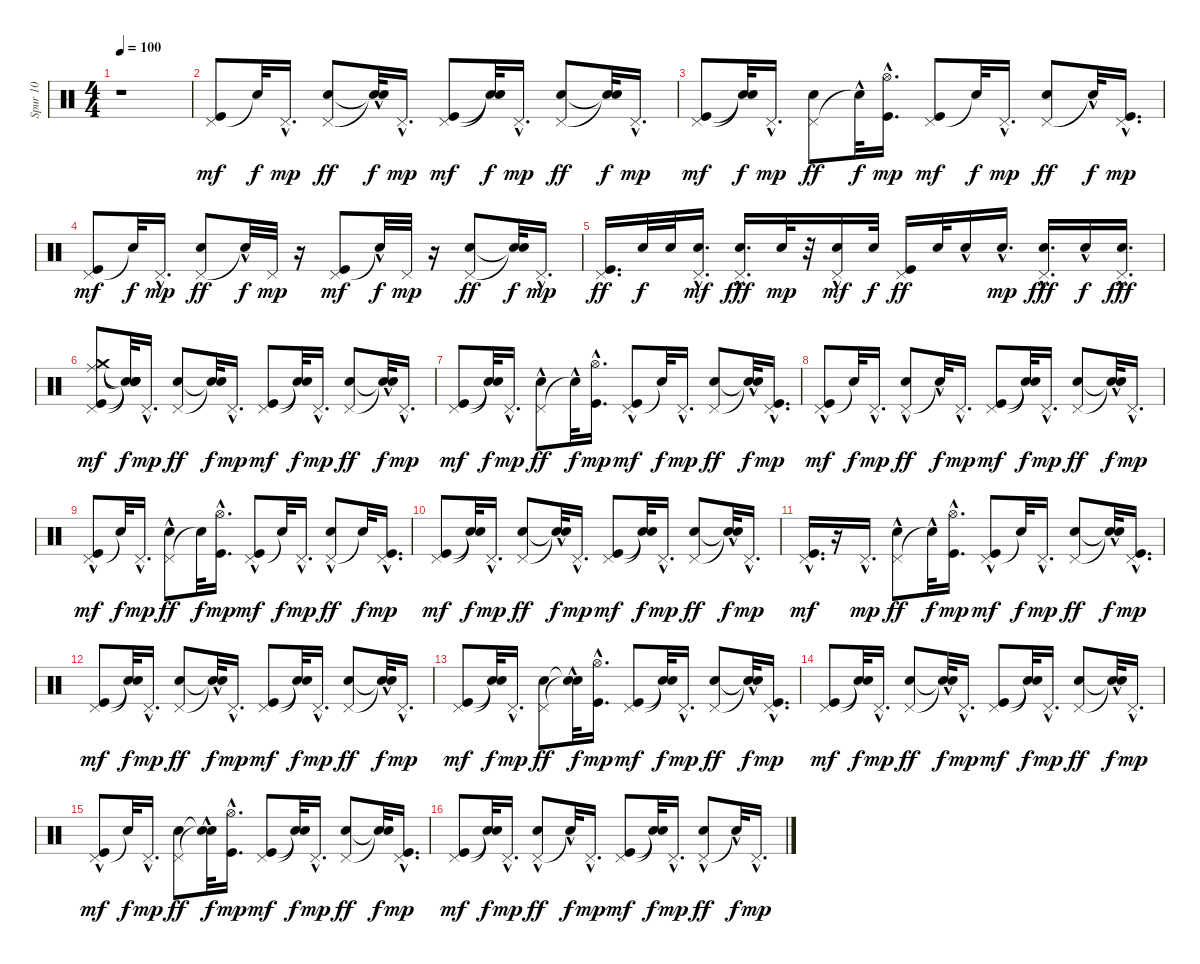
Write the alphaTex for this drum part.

\track ("Spur 10" "Spur 10") {instrument percussion}
\staff {score}
\articulation defaults
\ts (4 4)
\tempo 100
\clef neutral
\ks c
r.1{dy mf} |
("Pedal Hi-Hat (hit)" "Kick (hit)").8 "Snare (hit)"{t}.32{dy f} "Pedal Hi-Hat (hit)"{hac}.16{d dy mp} ("Pedal Hi-Hat (hit)" "Hand Clap (hit)").8{dy ff} ("Snare (hit)"{t} "Snare (hit)"{hac t}).32{dy f} "Pedal Hi-Hat (hit)"{hac}.16{d dy mp} ("Pedal Hi-Hat (hit)" "Kick (hit)").8{dy mf} ("Snare (hit)"{t} "Snare (hit)"{t}).32{dy f} "Pedal Hi-Hat (hit)"{hac}.16{d dy mp} ("Pedal Hi-Hat (hit)" "Hand Clap (hit)").8{dy ff} ("Snare (hit)"{t} "Snare (hit)"{t}).32{dy f} "Pedal Hi-Hat (hit)"{hac}.16{d dy mp} |
("Pedal Hi-Hat (hit)" "Kick (hit)").8{dy mf} ("Snare (hit)"{t} "Snare (hit)"{t}).32{dy f} "Pedal Hi-Hat (hit)"{hac}.16{d dy mp} ("Pedal Hi-Hat (hit)" "Hand Clap (hit)").8{dy ff} "Snare (hit)"{hac t}.32{dy f} ("Hi-Hat (open)" "Kick (hit)"{hac}).16{d dy mp} ("Pedal Hi-Hat (hit)" "Kick (hit)").8{dy mf} "Snare (hit)"{t}.32{dy f} "Pedal Hi-Hat (hit)"{hac}.16{d dy mp} ("Pedal Hi-Hat (hit)" "Hand Clap (hit)").8{dy ff} "Snare (hit)"{hac t}.32{dy f} ("Pedal Hi-Hat (hit)"{hac} "Kick (hit)").16{d dy mp} |
("Pedal Hi-Hat (hit)" "Kick (hit)").8{dy mf} "Snare (hit)"{t}.32{dy f} "Pedal Hi-Hat (hit)"{hac}.16{d dy mp} ("Pedal Hi-Hat (hit)" "Hand Clap (hit)").8{dy ff} "Snare (hit)"{hac t}.32{dy f} "Pedal Hi-Hat (hit)".32{dy mp} r.16 ("Pedal Hi-Hat (hit)" "Kick (hit)").8{dy mf} "Snare (hit)"{hac t}.32{dy f} "Pedal Hi-Hat (hit)".32{dy mp} r.16 ("Pedal Hi-Hat (hit)" "Hand Clap (hit)").8{dy ff} ("Snare (hit)"{t} "Snare (hit)"{t}).32{dy f} "Pedal Hi-Hat (hit)"{hac}.16{d dy mp} |
("Pedal Hi-Hat (hit)" "Kick (hit)").16{d dy ff} "Hand Clap (hit)".32{dy f} "Snare (hit) 2".32 ("Hand Clap (hit)"{hac} "Pedal Hi-Hat (hit)"{hac}).16{d dy mf} ("Pedal Hi-Hat (hit)" "Hand Clap (hit)"{hac}).16{d dy fff} "Hand Clap (hit)".32{dy mp} r.32 ("Hand Clap (hit)" "Pedal Hi-Hat (hit)"{hac}).16{dy mf} "Snare (hit) 2".32{dy f} ("Pedal Hi-Hat (hit)" "Kick (hit)").16{dy ff} "Snare (hit) 2".32 "Hand Clap (hit)"{hac}.16 "Hand Clap (hit)"{hac}.16{d dy mp} ("Pedal Hi-Hat (hit)" "Hand Clap (hit)"{hac}).16{d dy fff} "Hand Clap (hit)"{hac}.16{dy f} ("Pedal Hi-Hat (hit)"{hac} "Hand Clap (hit)").16{d dy fff} |
("Crash medium (hit)" "Ride (middle)" "Pedal Hi-Hat (hit)" "Kick (hit)").8{dy mf} ("Snare (hit)"{t} "Snare (hit)"{t} "Snare (hit)"{t} "Snare (hit)"{t}).32{dy f} "Pedal Hi-Hat (hit)"{hac}.16{d dy mp} ("Pedal Hi-Hat (hit)" "Hand Clap (hit)").8{dy ff} ("Snare (hit)"{t} "Snare (hit)"{t}).32{dy f} "Pedal Hi-Hat (hit)"{hac}.16{d dy mp} ("Pedal Hi-Hat (hit)" "Kick (hit)").8{dy mf} ("Snare (hit)"{t} "Snare (hit)"{t}).32{dy f} "Pedal Hi-Hat (hit)"{hac}.16{d dy mp} ("Pedal Hi-Hat (hit)" "Hand Clap (hit)").8{dy ff} ("Snare (hit)"{t} "Snare (hit)"{hac t}).32{dy f} "Pedal Hi-Hat (hit)"{hac}.16{d dy mp} |
("Pedal Hi-Hat (hit)" "Kick (hit)").8{dy mf} ("Snare (hit)"{t} "Snare (hit)"{t}).32{dy f} "Pedal Hi-Hat (hit)"{hac}.16{d dy mp} ("Pedal Hi-Hat (hit)"{hac} "Hand Clap (hit)").8{dy ff} "Snare (hit)"{hac t}.32{dy f} ("Hi-Hat (open)" "Kick (hit)"{hac}).16{d dy mp} ("Pedal Hi-Hat (hit)"{hac} "Kick (hit)").8{dy mf} "Snare (hit)"{t}.32{dy f} "Pedal Hi-Hat (hit)"{hac}.16{d dy mp} ("Pedal Hi-Hat (hit)" "Hand Clap (hit)").8{dy ff} ("Snare (hit)"{t} "Snare (hit)"{hac t}).32{dy f} ("Pedal Hi-Hat (hit)"{hac} "Kick (hit)"{hac}).16{d dy mp} |
("Pedal Hi-Hat (hit)" "Kick (hit)"{hac}).8{dy mf} "Snare (hit)"{t}.32{dy f} "Pedal Hi-Hat (hit)"{hac}.16{d dy mp} ("Pedal Hi-Hat (hit)"{hac} "Hand Clap (hit)").8{dy ff} "Snare (hit)"{hac t}.32{dy f} "Pedal Hi-Hat (hit)"{hac}.16{d dy mp} ("Pedal Hi-Hat (hit)" "Kick (hit)").8{dy mf} ("Snare (hit)"{t} "Snare (hit)"{t}).32{dy f} "Pedal Hi-Hat (hit)"{hac}.16{d dy mp} ("Pedal Hi-Hat (hit)" "Hand Clap (hit)").8{dy ff} ("Snare (hit)"{t} "Snare (hit)"{hac t}).32{dy f} "Pedal Hi-Hat (hit)"{hac}.16{d dy mp} |
("Pedal Hi-Hat (hit)" "Kick (hit)"{hac}).8{dy mf} "Snare (hit)"{t}.32{dy f} "Pedal Hi-Hat (hit)"{hac}.16{d dy mp} ("Pedal Hi-Hat (hit)"{hac} "Hand Clap (hit)").8{dy ff} "Snare (hit)"{t}.32{dy f} ("Hi-Hat (open)"{hac} "Kick (hit)"{hac}).16{d dy mp} ("Pedal Hi-Hat (hit)" "Kick (hit)"{hac}).8{dy mf} "Snare (hit)"{t}.32{dy f} "Pedal Hi-Hat (hit)"{hac}.16{d dy mp} ("Pedal Hi-Hat (hit)" "Hand Clap (hit)"{hac}).8{dy ff} "Snare (hit)"{t}.32{dy f} ("Pedal Hi-Hat (hit)"{hac} "Kick (hit)"{hac}).16{d dy mp} |
("Pedal Hi-Hat (hit)" "Kick (hit)").8{dy mf} ("Snare (hit)"{t} "Snare (hit)"{t}).32{dy f} "Pedal Hi-Hat (hit)"{hac}.16{d dy mp} ("Pedal Hi-Hat (hit)" "Hand Clap (hit)").8{dy ff} ("Snare (hit)"{t} "Snare (hit)"{hac t}).32{dy f} "Pedal Hi-Hat (hit)"{hac}.16{d dy mp} ("Pedal Hi-Hat (hit)" "Kick (hit)").8{dy mf} ("Snare (hit)"{t} "Snare (hit)"{t}).32{dy f} "Pedal Hi-Hat (hit)"{hac}.16{d dy mp} ("Pedal Hi-Hat (hit)" "Hand Clap (hit)").8{dy ff} ("Snare (hit)"{t} "Snare (hit)"{hac t}).32{dy f} "Pedal Hi-Hat (hit)"{hac}.16{d dy mp} |
("Pedal Hi-Hat (hit)"{hac} "Kick (hit)"{hac}).16{d dy mf} r.16 "Pedal Hi-Hat (hit)"{hac}.16{d dy mp} ("Pedal Hi-Hat (hit)"{hac} "Hand Clap (hit)").8{dy ff} "Snare (hit)"{hac t}.32{dy f} ("Hi-Hat (open)" "Kick (hit)"{hac}).16{d dy mp} ("Pedal Hi-Hat (hit)"{hac} "Kick (hit)").8{dy mf} "Snare (hit)"{t}.32{dy f} "Pedal Hi-Hat (hit)"{hac}.16{d dy mp} ("Pedal Hi-Hat (hit)" "Hand Clap (hit)").8{dy ff} ("Snare (hit)"{t} "Snare (hit)"{hac t}).32{dy f} ("Pedal Hi-Hat (hit)"{hac} "Kick (hit)"{hac}).16{d dy mp} |
("Pedal Hi-Hat (hit)" "Kick (hit)").8{dy mf} ("Snare (hit)"{t} "Snare (hit)"{t}).32{dy f} "Pedal Hi-Hat (hit)"{hac}.16{d dy mp} ("Pedal Hi-Hat (hit)" "Hand Clap (hit)").8{dy ff} ("Snare (hit)"{t} "Snare (hit)"{hac t}).32{dy f} "Pedal Hi-Hat (hit)"{hac}.16{d dy mp} ("Pedal Hi-Hat (hit)" "Kick (hit)").8{dy mf} ("Snare (hit)"{t} "Snare (hit)"{t}).32{dy f} "Pedal Hi-Hat (hit)"{hac}.16{d dy mp} ("Pedal Hi-Hat (hit)" "Hand Clap (hit)").8{dy ff} ("Snare (hit)"{t} "Snare (hit)"{hac t}).32{dy f} "Pedal Hi-Hat (hit)"{hac}.16{d dy mp} |
("Pedal Hi-Hat (hit)" "Kick (hit)").8{dy mf} ("Snare (hit)"{t} "Snare (hit)"{t}).32{dy f} "Pedal Hi-Hat (hit)"{hac}.16{d dy mp} ("Pedal Hi-Hat (hit)" "Hand Clap (hit)").8{dy ff} ("Snare (hit)"{t} "Snare (hit)"{hac t}).32{dy f} ("Hi-Hat (open)"{hac} "Kick (hit)"{hac}).16{d dy mp} ("Pedal Hi-Hat (hit)" "Kick (hit)").8{dy mf} ("Snare (hit)"{t} "Snare (hit)"{t}).32{dy f} "Pedal Hi-Hat (hit)"{hac}.16{d dy mp} ("Pedal Hi-Hat (hit)" "Hand Clap (hit)").8{dy ff} ("Snare (hit)"{t} "Snare (hit)"{hac t}).32{dy f} ("Pedal Hi-Hat (hit)"{hac} "Kick (hit)"{hac}).16{d dy mp} |
("Pedal Hi-Hat (hit)" "Kick (hit)").8{dy mf} ("Snare (hit)"{t} "Snare (hit)"{t}).32{dy f} "Pedal Hi-Hat (hit)"{hac}.16{d dy mp} ("Pedal Hi-Hat (hit)" "Hand Clap (hit)").8{dy ff} ("Snare (hit)"{t} "Snare (hit)"{hac t}).32{dy f} "Pedal Hi-Hat (hit)"{hac}.16{d dy mp} ("Pedal Hi-Hat (hit)" "Kick (hit)").8{dy mf} ("Snare (hit)"{t} "Snare (hit)"{t}).32{dy f} "Pedal Hi-Hat (hit)"{hac}.16{d dy mp} ("Pedal Hi-Hat (hit)" "Hand Clap (hit)").8{dy ff} ("Snare (hit)"{t} "Snare (hit)"{hac t}).32{dy f} "Pedal Hi-Hat (hit)"{hac}.16{d dy mp} |
("Pedal Hi-Hat (hit)" "Kick (hit)"{hac}).8{dy mf} "Snare (hit)"{t}.32{dy f} "Pedal Hi-Hat (hit)"{hac}.16{d dy mp} ("Pedal Hi-Hat (hit)" "Hand Clap (hit)").8{dy ff} ("Snare (hit)"{t} "Snare (hit)"{hac t}).32{dy f} ("Hi-Hat (open)" "Kick (hit)"{hac}).16{d dy mp} ("Pedal Hi-Hat (hit)" "Kick (hit)").8{dy mf} ("Snare (hit)"{t} "Snare (hit)"{t}).32{dy f} "Pedal Hi-Hat (hit)"{hac}.16{d dy mp} ("Pedal Hi-Hat (hit)" "Hand Clap (hit)").8{dy ff} ("Snare (hit)"{t} "Snare (hit)"{t}).32{dy f} ("Pedal Hi-Hat (hit)"{hac} "Kick (hit)"{hac}).16{d dy mp} |
("Pedal Hi-Hat (hit)" "Kick (hit)").8{dy mf} ("Snare (hit)"{t} "Snare (hit)"{t}).32{dy f} "Pedal Hi-Hat (hit)"{hac}.16{d dy mp} ("Pedal Hi-Hat (hit)"{hac} "Hand Clap (hit)").8{dy ff} "Snare (hit)"{hac t}.32{dy f} "Pedal Hi-Hat (hit)"{hac}.16{d dy mp} ("Pedal Hi-Hat (hit)" "Kick (hit)").8{dy mf} ("Snare (hit)"{t} "Snare (hit)"{t}).32{dy f} "Pedal Hi-Hat (hit)"{hac}.16{d dy mp} ("Pedal Hi-Hat (hit)"{hac} "Hand Clap (hit)").8{dy ff} "Snare (hit)"{hac t}.32{dy f} "Pedal Hi-Hat (hit)"{hac}.16{d dy mp}
